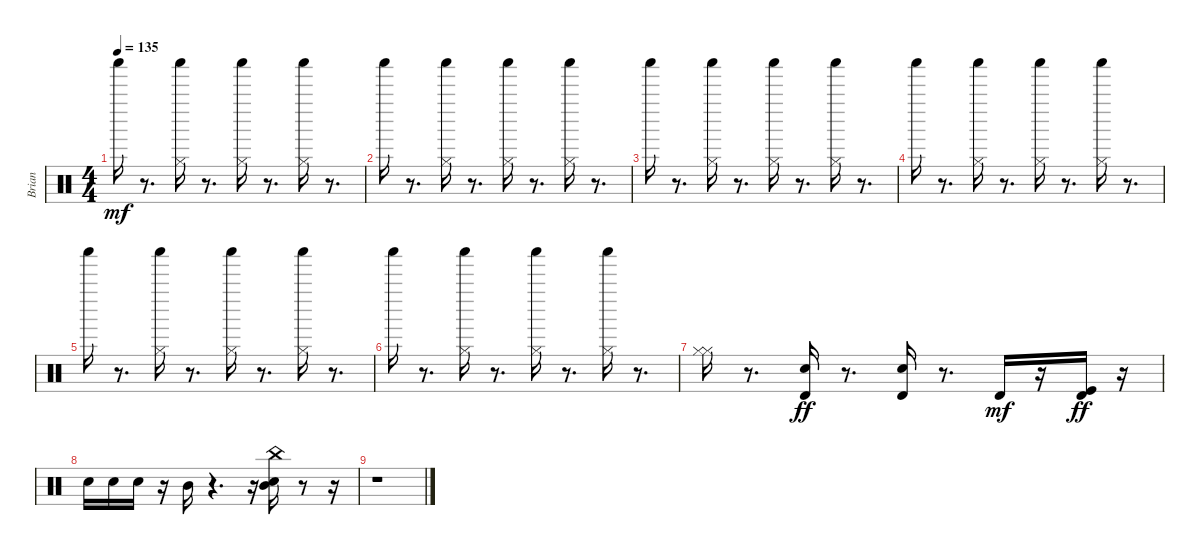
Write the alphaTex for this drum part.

\track ("Brian" "Brian") {instrument percussion}
\staff {score}
\articulation defaults
\ts (4 4)
\tempo 135
\clef neutral
\ks c "Shaker (hit)".16{dy mf}
r.8{d} ("Shaker (hit)" "Hi-Hat (closed)").16 r.8{d} ("Shaker (hit)" "Hi-Hat (closed)").16 r.8{d} ("Shaker (hit)" "Hi-Hat (closed)").16 r.8{d} |
"Shaker (hit)".16 r.8{d} ("Shaker (hit)" "Hi-Hat (closed)").16 r.8{d} ("Shaker (hit)" "Hi-Hat (closed)").16 r.8{d} ("Shaker (hit)" "Hi-Hat (closed)").16 r.8{d} |
"Shaker (hit)".16 r.8{d} ("Shaker (hit)" "Hi-Hat (closed)").16 r.8{d} ("Shaker (hit)" "Hi-Hat (closed)").16 r.8{d} ("Shaker (hit)" "Hi-Hat (closed)").16 r.8{d} |
"Shaker (hit)".16 r.8{d} ("Shaker (hit)" "Hi-Hat (closed)").16 r.8{d} ("Shaker (hit)" "Hi-Hat (closed)").16 r.8{d} ("Shaker (hit)" "Hi-Hat (closed)").16 r.8{d} |
"Shaker (hit)".16 r.8{d} ("Shaker (hit)" "Hi-Hat (closed)").16 r.8{d} ("Shaker (hit)" "Hi-Hat (closed)").16 r.8{d} ("Shaker (hit)" "Hi-Hat (closed)").16 r.8{d} |
"Shaker (hit)".16 r.8{d} ("Shaker (hit)" "Hi-Hat (closed)").16 r.8{d} ("Shaker (hit)" "Hi-Hat (closed)").16 r.8{d} ("Shaker (hit)" "Hi-Hat (closed)").16 r.8{d} |
("Hi-Hat (closed)" "Hi-Hat (closed)").16 r.8{d} ("Timbale high (hit)" "Snare (hit) 2").16{dy ff} r.8{d} ("Timbale high (hit)" "Snare (hit) 2").16 r.8{d} "Timbale high (hit)".16{dy mf} r.16 ("Timbale high (hit)" "Kick (hit)").16{dy ff} r.16 |
"Snare (hit) 2".16 "Snare (hit) 2".16 "Snare (hit) 2".16 r.16 "Mid Tom (hit)".16 r.4{d} r.16 ("Snare (hit) 2" "Mid Tom (hit)" "China (hit)").16 r.8 r.16 |
r.1
